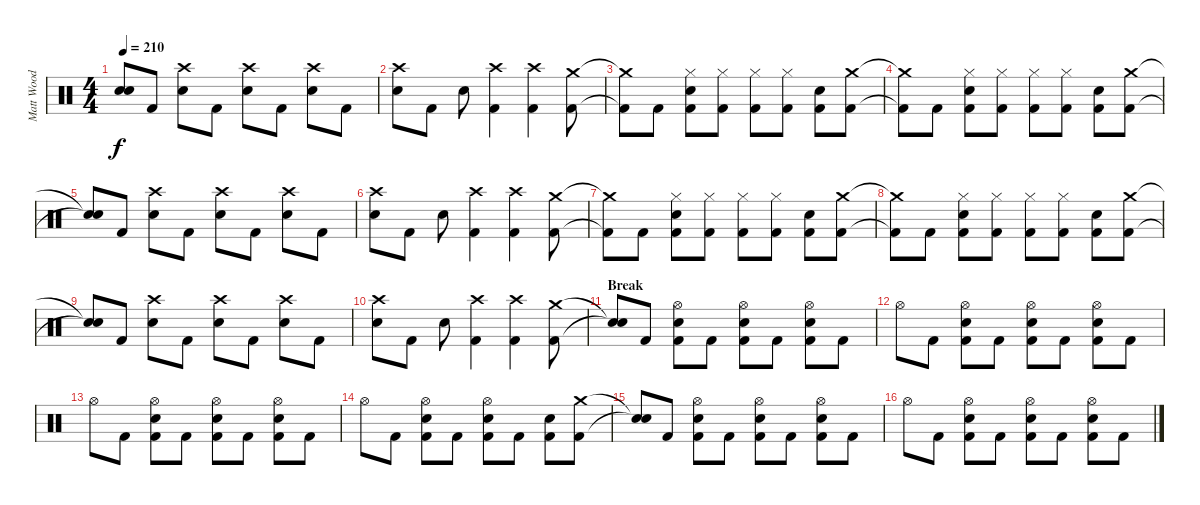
\track ("Matt Wood" "Matt Wood") {instrument percussion}
\staff {score}
\articulation defaults
\ts (4 4)
\tempo 210
\clef neutral
\ks c
("Snare (hit)"{t} "Snare (hit)"{t}).8{dy f} "Kick (hit) 2".8 ("Crash high (hit)" "Snare (hit) 2").8 "Kick (hit) 2".8 ("Crash high (hit)" "Snare (hit) 2").8 "Kick (hit) 2".8 ("Crash high (hit)" "Snare (hit) 2").8 "Kick (hit) 2".8 |
("Crash high (hit)" "Snare (hit) 2").8 "Kick (hit) 2".8 "Snare (hit) 2".8 ("Crash high (hit)" "Kick (hit) 2").4 ("Crash high (hit)" "Kick (hit) 2").4 ("Crash medium (hit)" "Kick (hit) 2").8 |
("Crash medium (hit)"{t} "Kick (hit) 2"{t}).8 "Kick (hit) 2".8 ("Hi-Hat (closed)" "Snare (hit) 2" "Kick (hit) 2").8 ("Hi-Hat (closed)" "Kick (hit) 2").8 ("Hi-Hat (closed)" "Kick (hit) 2").8 ("Hi-Hat (closed)" "Kick (hit) 2").8 ("Snare (hit) 2" "Kick (hit) 2").8 ("Crash medium (hit)" "Kick (hit) 2").8 |
("Crash medium (hit)"{t} "Kick (hit) 2"{t}).8 "Kick (hit) 2".8 ("Hi-Hat (closed)" "Snare (hit) 2" "Kick (hit) 2").8 ("Hi-Hat (closed)" "Kick (hit) 2").8 ("Hi-Hat (closed)" "Kick (hit) 2").8 ("Hi-Hat (closed)" "Kick (hit) 2").8 ("Snare (hit) 2" "Kick (hit) 2").8 ("Crash medium (hit)" "Kick (hit) 2").8 |
("Snare (hit)"{t} "Snare (hit)"{t}).8 "Kick (hit) 2".8 ("Crash high (hit)" "Snare (hit) 2").8 "Kick (hit) 2".8 ("Crash high (hit)" "Snare (hit) 2").8 "Kick (hit) 2".8 ("Crash high (hit)" "Snare (hit) 2").8 "Kick (hit) 2".8 |
("Crash high (hit)" "Snare (hit) 2").8 "Kick (hit) 2".8 "Snare (hit) 2".8 ("Crash high (hit)" "Kick (hit) 2").4 ("Crash high (hit)" "Kick (hit) 2").4 ("Crash medium (hit)" "Kick (hit) 2").8 |
("Crash medium (hit)"{t} "Kick (hit) 2"{t}).8 "Kick (hit) 2".8 ("Hi-Hat (closed)" "Snare (hit) 2" "Kick (hit) 2").8 ("Hi-Hat (closed)" "Kick (hit) 2").8 ("Hi-Hat (closed)" "Kick (hit) 2").8 ("Hi-Hat (closed)" "Kick (hit) 2").8 ("Snare (hit) 2" "Kick (hit) 2").8 ("Crash medium (hit)" "Kick (hit) 2").8 |
("Crash medium (hit)"{t} "Kick (hit) 2"{t}).8 "Kick (hit) 2".8 ("Hi-Hat (closed)" "Snare (hit) 2" "Kick (hit) 2").8 ("Hi-Hat (closed)" "Kick (hit) 2").8 ("Hi-Hat (closed)" "Kick (hit) 2").8 ("Hi-Hat (closed)" "Kick (hit) 2").8 ("Snare (hit) 2" "Kick (hit) 2").8 ("Crash medium (hit)" "Kick (hit) 2").8 |
("Snare (hit)"{t} "Snare (hit)"{t}).8 "Kick (hit) 2".8 ("Crash high (hit)" "Snare (hit) 2").8 "Kick (hit) 2".8 ("Crash high (hit)" "Snare (hit) 2").8 "Kick (hit) 2".8 ("Crash high (hit)" "Snare (hit) 2").8 "Kick (hit) 2".8 |
("Crash high (hit)" "Snare (hit) 2").8 "Kick (hit) 2".8 "Snare (hit) 2".8 ("Crash high (hit)" "Kick (hit) 2").4 ("Crash high (hit)" "Kick (hit) 2").4 ("Crash medium (hit)" "Kick (hit) 2").8 |
\section ("" "Break")
("Snare (hit)"{t} "Snare (hit)"{t}).8 "Kick (hit) 2".8 ("Hi-Hat (open)" "Snare (hit) 2" "Kick (hit) 2").8 "Kick (hit) 2".8 ("Hi-Hat (open)" "Snare (hit) 2" "Kick (hit) 2").8 "Kick (hit) 2".8 ("Hi-Hat (open)" "Snare (hit) 2" "Kick (hit) 2").8 "Kick (hit) 2".8 |
"Hi-Hat (open)".8 "Kick (hit) 2".8 ("Hi-Hat (open)" "Snare (hit) 2" "Kick (hit) 2").8 "Kick (hit) 2".8 ("Hi-Hat (open)" "Snare (hit) 2" "Kick (hit) 2").8 "Kick (hit) 2".8 ("Hi-Hat (open)" "Snare (hit) 2" "Kick (hit) 2").8 "Kick (hit) 2".8 |
"Hi-Hat (open)".8 "Kick (hit) 2".8 ("Hi-Hat (open)" "Snare (hit) 2" "Kick (hit) 2").8 "Kick (hit) 2".8 ("Hi-Hat (open)" "Snare (hit) 2" "Kick (hit) 2").8 "Kick (hit) 2".8 ("Hi-Hat (open)" "Snare (hit) 2" "Kick (hit) 2").8 "Kick (hit) 2".8 |
"Hi-Hat (open)".8 "Kick (hit) 2".8 ("Hi-Hat (open)" "Snare (hit) 2" "Kick (hit) 2").8 "Kick (hit) 2".8 ("Hi-Hat (open)" "Snare (hit) 2" "Kick (hit) 2").8 "Kick (hit) 2".8 ("Snare (hit) 2" "Kick (hit) 2").8 ("Crash medium (hit)" "Kick (hit) 2").8 |
("Snare (hit)"{t} "Snare (hit)"{t}).8 "Kick (hit) 2".8 ("Hi-Hat (open)" "Snare (hit) 2" "Kick (hit) 2").8 "Kick (hit) 2".8 ("Hi-Hat (open)" "Snare (hit) 2" "Kick (hit) 2").8 "Kick (hit) 2".8 ("Hi-Hat (open)" "Snare (hit) 2" "Kick (hit) 2").8 "Kick (hit) 2".8 |
"Hi-Hat (open)".8 "Kick (hit) 2".8 ("Hi-Hat (open)" "Snare (hit) 2" "Kick (hit) 2").8 "Kick (hit) 2".8 ("Hi-Hat (open)" "Snare (hit) 2" "Kick (hit) 2").8 "Kick (hit) 2".8 ("Hi-Hat (open)" "Snare (hit) 2" "Kick (hit) 2").8 "Kick (hit) 2".8
